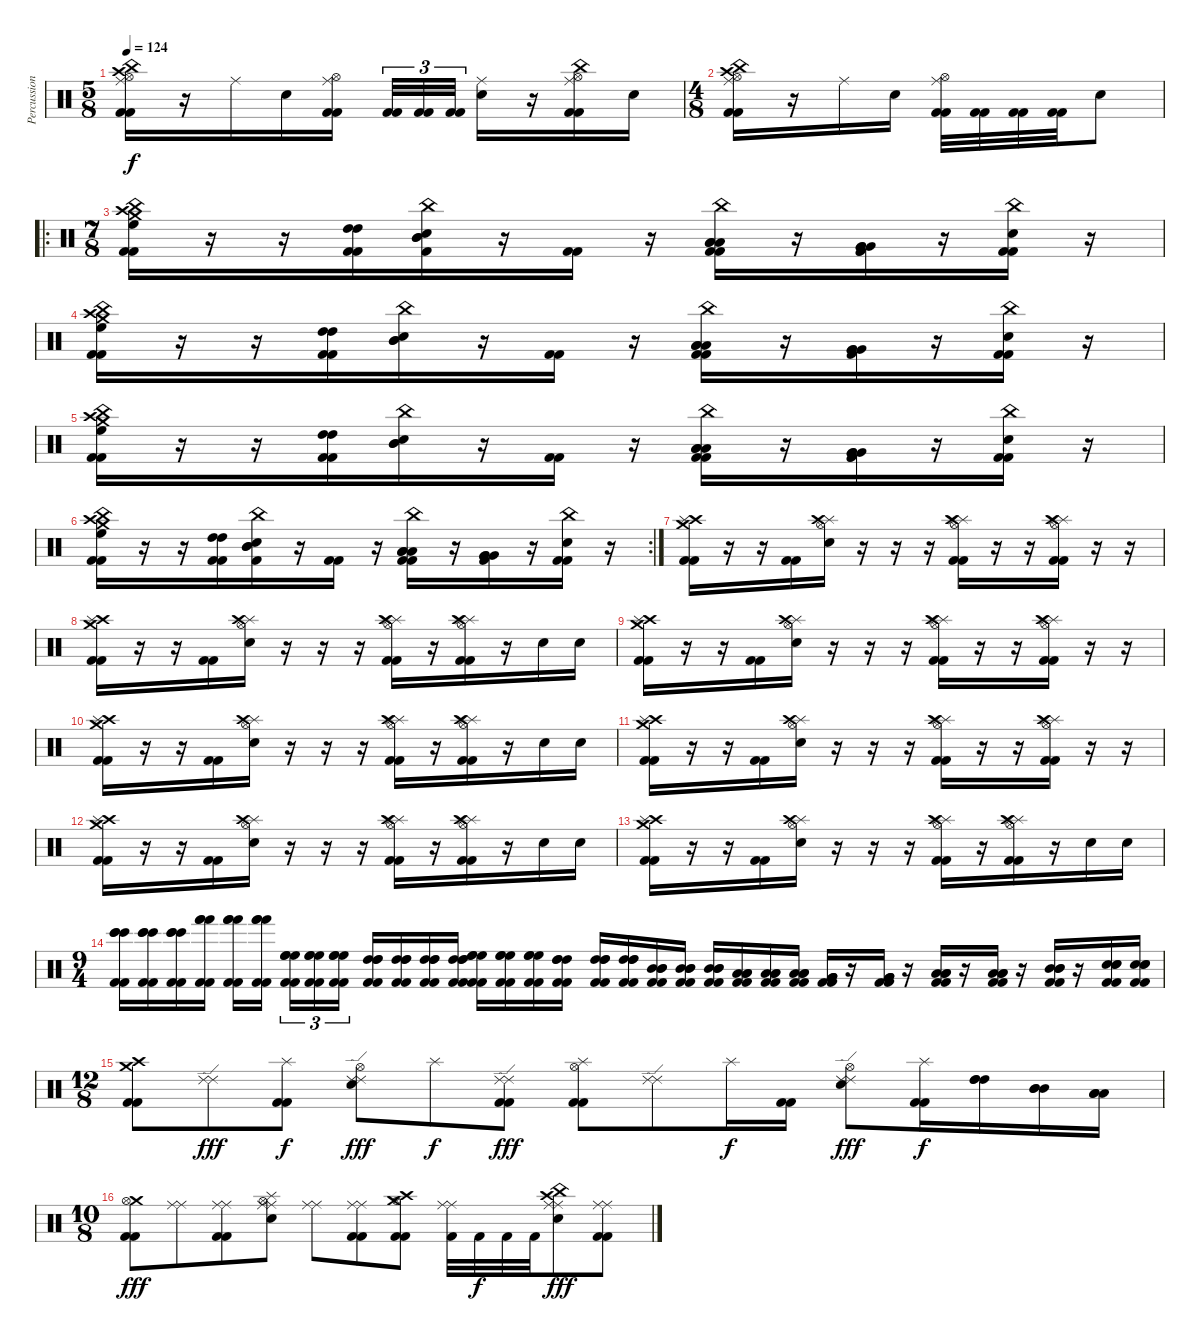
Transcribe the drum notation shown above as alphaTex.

\track ("Percussioni" "Percussion") {instrument percussion}
\staff {score}
\articulation defaults
\ts (5 8)
\tempo 124
\clef neutral
\ks c
("Crash high (hit)" "Ride (middle)" "Hi-Hat (open)" "China (hit)" "Kick (hit) 2" "Kick (hit) 2").16{dy f} r.16 "Ride (middle)".16 "Snare (hit) 2".16 ("Ride (middle)" "Hi-Hat (open)" "Kick (hit) 2" "Kick (hit) 2").16 ("Kick (hit) 2" "Kick (hit) 2").32{tu (3 2)} ("Kick (hit) 2" "Kick (hit) 2").32{tu (3 2)} ("Kick (hit) 2" "Kick (hit) 2").32{tu (3 2)} ("Ride (middle)" "Snare (hit) 2").16 r.16 ("Ride (middle)" "Hi-Hat (open)" "China (hit)" "Kick (hit) 2" "Kick (hit) 2").16 "Snare (hit) 2".16 |
\ts (4 8)
("Crash high (hit)" "Ride (middle)" "Hi-Hat (open)" "China (hit)" "Kick (hit) 2" "Kick (hit) 2").16 r.16 "Ride (middle)".16 "Snare (hit) 2".16 ("Ride (middle)" "Hi-Hat (open)" "Kick (hit) 2" "Kick (hit) 2").32 ("Kick (hit) 2" "Kick (hit) 2").32 ("Kick (hit) 2" "Kick (hit) 2").32 ("Kick (hit) 2" "Kick (hit) 2").32 "Snare (hit) 2".8 |
\ro
\ts (7 8)
("China (hit)" "Crash medium (hit)" "Crash high (hit)" "High Floor Tom (hit)" "Kick (hit) 2" "Kick (hit) 2").16 r.16 r.16 ("Kick (hit) 2" "High Tom (hit)" "High Tom (hit)" "Kick (hit) 2").16 ("China (hit)" "Snare (hit) 2" "Kick (hit) 2" "Mid Tom (hit)" "Mid Tom (hit)").16 r.16 ("Kick (hit) 2" "Kick (hit) 2").16 r.16 ("China (hit)" "Kick (hit) 2" "Low Tom (hit)" "Low Tom (hit)" "Low Tom (hit)" "Kick (hit) 2").16 r.16 ("Kick (hit) 2" "Very Low Tom (hit)" "Very Low Tom (hit)" "Very Low Tom (hit)" "Kick (hit) 2").16 r.16 ("China (hit)" "Snare (hit) 2" "Kick (hit) 2" "Kick (hit) 2").16 r.16 |
("China (hit)" "Crash medium (hit)" "Crash high (hit)" "High Floor Tom (hit)" "Kick (hit) 2" "Kick (hit) 2").16 r.16 r.16 ("Kick (hit) 2" "High Tom (hit)" "High Tom (hit)" "Kick (hit) 2").16 ("China (hit)" "Snare (hit) 2" "Mid Tom (hit)" "Mid Tom (hit)").16 r.16 ("Kick (hit) 2" "Kick (hit) 2").16 r.16 ("China (hit)" "Kick (hit) 2" "Low Tom (hit)" "Low Tom (hit)" "Low Tom (hit)" "Kick (hit) 2").16 r.16 ("Very Low Tom (hit)" "Very Low Tom (hit)" "Very Low Tom (hit)" "Kick (hit) 2").16 r.16 ("China (hit)" "Snare (hit) 2" "Kick (hit) 2" "Kick (hit) 2").16 r.16 |
("China (hit)" "Crash high (hit)" "Crash medium (hit)" "High Floor Tom (hit)" "Kick (hit) 2" "Kick (hit) 2").16 r.16 r.16 ("Kick (hit) 2" "High Tom (hit)" "High Tom (hit)" "Kick (hit) 2").16 ("China (hit)" "Snare (hit) 2" "Mid Tom (hit)" "Mid Tom (hit)").16 r.16 ("Kick (hit) 2" "Kick (hit) 2").16 r.16 ("China (hit)" "Kick (hit) 2" "Low Tom (hit)" "Low Tom (hit)" "Low Tom (hit)" "Kick (hit) 2").16 r.16 ("Kick (hit) 2" "Very Low Tom (hit)" "Very Low Tom (hit)" "Very Low Tom (hit)" "Kick (hit) 2").16 r.16 ("China (hit)" "Snare (hit) 2" "Kick (hit) 2" "Kick (hit) 2").16 r.16 |
\rc 2
("China (hit)" "Crash medium (hit)" "Crash high (hit)" "High Floor Tom (hit)" "Kick (hit) 2" "Kick (hit) 2").16 r.16 r.16 ("Kick (hit) 2" "High Tom (hit)" "High Tom (hit)" "Kick (hit) 2").16 ("China (hit)" "Snare (hit) 2" "Kick (hit) 2" "Mid Tom (hit)" "Mid Tom (hit)").16 r.16 ("Kick (hit) 2" "Kick (hit) 2").16 r.16 ("China (hit)" "Kick (hit) 2" "Low Tom (hit)" "Low Tom (hit)" "Low Tom (hit)" "Kick (hit) 2").16 r.16 ("Very Low Tom (hit)" "Very Low Tom (hit)" "Very Low Tom (hit)" "Kick (hit) 2").16 r.16 ("China (hit)" "Snare (hit) 2" "Kick (hit) 2" "Kick (hit) 2").16 r.16 |
("Crash high (hit)" "Crash medium (hit)" "Splash (hit)" "Kick (hit) 2" "Kick (hit) 2").16 r.16 r.16 ("Kick (hit) 2" "Kick (hit) 2").16 ("Hi-Hat (open)" "Snare (hit) 2" "Splash (hit)" "Crash high (hit)").16 r.16 r.16 r.16 ("Hi-Hat (open)" "Splash (hit)" "Splash (hit)" "Crash high (hit)" "Kick (hit) 2" "Kick (hit) 2").16 r.16 r.16 ("Hi-Hat (open)" "Splash (hit)" "Splash (hit)" "Crash high (hit)" "Kick (hit) 2" "Kick (hit) 2").16 r.16 r.16 |
("Crash high (hit)" "Crash medium (hit)" "Splash (hit)" "Kick (hit) 2" "Kick (hit) 2").16 r.16 r.16 ("Kick (hit) 2" "Kick (hit) 2").16 ("Hi-Hat (open)" "Snare (hit) 2" "Splash (hit)" "Crash high (hit)").16 r.16 r.16 r.16 ("Hi-Hat (open)" "Splash (hit)" "Splash (hit)" "Crash high (hit)" "Kick (hit) 2" "Kick (hit) 2").16 r.16 ("Hi-Hat (open)" "Splash (hit)" "Splash (hit)" "Crash high (hit)" "Kick (hit) 2" "Kick (hit) 2").16 r.16 "Snare (hit) 2".16 "Snare (hit) 2".16 |
("Crash high (hit)" "Crash medium (hit)" "Splash (hit)" "Kick (hit) 2" "Kick (hit) 2").16 r.16 r.16 ("Kick (hit) 2" "Kick (hit) 2").16 ("Hi-Hat (open)" "Snare (hit) 2" "Splash (hit)" "Crash high (hit)").16 r.16 r.16 r.16 ("Hi-Hat (open)" "Splash (hit)" "Splash (hit)" "Crash high (hit)" "Kick (hit) 2" "Kick (hit) 2").16 r.16 r.16 ("Hi-Hat (open)" "Splash (hit)" "Splash (hit)" "Crash high (hit)" "Kick (hit) 2" "Kick (hit) 2").16 r.16 r.16 |
("Crash high (hit)" "Crash medium (hit)" "Splash (hit)" "Kick (hit) 2" "Kick (hit) 2").16 r.16 r.16 ("Kick (hit) 2" "Kick (hit) 2").16 ("Hi-Hat (open)" "Snare (hit) 2" "Splash (hit)" "Crash high (hit)").16 r.16 r.16 r.16 ("Hi-Hat (open)" "Splash (hit)" "Splash (hit)" "Crash high (hit)" "Kick (hit) 2" "Kick (hit) 2").16 r.16 ("Hi-Hat (open)" "Splash (hit)" "Splash (hit)" "Crash high (hit)" "Kick (hit) 2" "Kick (hit) 2").16 r.16 "Snare (hit) 2".16 "Snare (hit) 2".16 |
("Crash high (hit)" "Crash medium (hit)" "Splash (hit)" "Kick (hit) 2" "Kick (hit) 2").16 r.16 r.16 ("Kick (hit) 2" "Kick (hit) 2").16 ("Hi-Hat (open)" "Snare (hit) 2" "Splash (hit)" "Crash high (hit)").16 r.16 r.16 r.16 ("Hi-Hat (open)" "Splash (hit)" "Splash (hit)" "Crash high (hit)" "Kick (hit) 2" "Kick (hit) 2").16 r.16 r.16 ("Hi-Hat (open)" "Splash (hit)" "Splash (hit)" "Crash high (hit)" "Kick (hit) 2" "Kick (hit) 2").16 r.16 r.16 |
("Crash high (hit)" "Crash medium (hit)" "Splash (hit)" "Kick (hit) 2" "Kick (hit) 2").16 r.16 r.16 ("Kick (hit) 2" "Kick (hit) 2").16 ("Hi-Hat (open)" "Snare (hit) 2" "Splash (hit)" "Crash high (hit)").16 r.16 r.16 r.16 ("Hi-Hat (open)" "Splash (hit)" "Splash (hit)" "Crash high (hit)" "Kick (hit) 2" "Kick (hit) 2").16 r.16 ("Hi-Hat (open)" "Splash (hit)" "Splash (hit)" "Crash high (hit)" "Kick (hit) 2" "Kick (hit) 2").16 r.16 "Snare (hit) 2".16 "Snare (hit) 2".16 |
("Crash high (hit)" "Crash medium (hit)" "Splash (hit)" "Kick (hit) 2" "Kick (hit) 2").16 r.16 r.16 ("Kick (hit) 2" "Kick (hit) 2").16 ("Hi-Hat (open)" "Snare (hit) 2" "Splash (hit)" "Crash high (hit)").16 r.16 r.16 r.16 ("Hi-Hat (open)" "Splash (hit)" "Splash (hit)" "Crash high (hit)" "Kick (hit) 2" "Kick (hit) 2").16 r.16 ("Hi-Hat (open)" "Splash (hit)" "Splash (hit)" "Crash high (hit)" "Kick (hit) 2" "Kick (hit) 2").16 r.16 "Snare (hit) 2".16 "Snare (hit) 2".16 |
\ts (9 4)
("Bongo High (hit)" "Bongo High (hit)" "Bongo High (hit)" "Kick (hit) 2" "Kick (hit) 2").16 ("Bongo High (hit)" "Bongo High (hit)" "Bongo High (hit)" "Kick (hit) 2" "Kick (hit) 2").16 ("Bongo High (hit)" "Bongo High (hit)" "Bongo High (hit)" "Kick (hit) 2" "Kick (hit) 2").16 ("Hand (hit)" "Hand (hit)" "Hand (hit)" "Kick (hit) 2" "Kick (hit) 2").16 ("Hand (hit)" "Hand (hit)" "Hand (hit)" "Kick (hit) 2" "Kick (hit) 2").16 ("Hand (hit)" "Hand (hit)" "Hand (hit)" "Kick (hit) 2" "Kick (hit) 2").16 ("High Floor Tom (hit)" "High Floor Tom (hit)" "High Floor Tom (hit)" "Kick (hit) 2" "Kick (hit) 2").16{tu (3 2)} ("High Floor Tom (hit)" "High Floor Tom (hit)" "High Floor Tom (hit)" "Kick (hit) 2" "Kick (hit) 2").16{tu (3 2)} ("High Floor Tom (hit)" "High Floor Tom (hit)" "High Floor Tom (hit)" "Kick (hit) 2" "Kick (hit) 2").16{tu (3 2)} ("High Tom (hit)" "High Tom (hit)" "High Tom (hit)" "Kick (hit) 2" "Kick (hit) 2").16 ("High Tom (hit)" "High Tom (hit)" "High Tom (hit)" "Kick (hit) 2" "Kick (hit) 2").16 ("High Tom (hit)" "High Tom (hit)" "High Tom (hit)" "Kick (hit) 2" "Kick (hit) 2").16 ("High Tom (hit)" "High Tom (hit)" "High Tom (hit)" "Kick (hit) 2" "Kick (hit) 2").16 ("High Floor Tom (hit)" "High Floor Tom (hit)" "High Floor Tom (hit)" "Kick (hit) 2" "Kick (hit) 2").16 ("High Floor Tom (hit)" "High Floor Tom (hit)" "High Floor Tom (hit)" "Kick (hit) 2" "Kick (hit) 2").16 ("High Floor Tom (hit)" "High Floor Tom (hit)" "High Floor Tom (hit)" "Kick (hit) 2" "Kick (hit) 2").16 ("High Tom (hit)" "High Tom (hit)" "High Tom (hit)" "Kick (hit) 2" "Kick (hit) 2").16 ("High Tom (hit)" "High Tom (hit)" "High Tom (hit)" "Kick (hit) 2" "Kick (hit) 2").16 ("High Tom (hit)" "High Tom (hit)" "High Tom (hit)" "Kick (hit) 2" "Kick (hit) 2").16 ("Mid Tom (hit)" "Mid Tom (hit)" "Mid Tom (hit)" "Kick (hit) 2" "Kick (hit) 2").16 ("Mid Tom (hit)" "Mid Tom (hit)" "Mid Tom (hit)" "Kick (hit) 2" "Kick (hit) 2").16 ("Mid Tom (hit)" "Mid Tom (hit)" "Mid Tom (hit)" "Kick (hit) 2" "Kick (hit) 2").16 ("Low Tom (hit)" "Low Tom (hit)" "Low Tom (hit)" "Kick (hit) 2" "Kick (hit) 2").16 ("Low Tom (hit)" "Low Tom (hit)" "Low Tom (hit)" "Kick (hit) 2" "Kick (hit) 2").16 ("Low Tom (hit)" "Low Tom (hit)" "Low Tom (hit)" "Kick (hit) 2" "Kick (hit) 2").16 ("Very Low Tom (hit)" "Very Low Tom (hit)" "Very Low Tom (hit)" "Kick (hit) 2" "Kick (hit) 2").16 r.16 ("Very Low Tom (hit)" "Very Low Tom (hit)" "Very Low Tom (hit)" "Kick (hit) 2" "Kick (hit) 2").16 r.16 ("Low Tom (hit)" "Low Tom (hit)" "Low Tom (hit)" "Kick (hit) 2" "Kick (hit) 2").16 r.16 ("Low Tom (hit)" "Low Tom (hit)" "Low Tom (hit)" "Kick (hit) 2" "Kick (hit) 2").16 r.16 ("Mid Tom (hit)" "Mid Tom (hit)" "Mid Tom (hit)" "Kick (hit) 2" "Kick (hit) 2").16 r.16 ("Snare (hit) 2" "Snare (hit) 2" "Snare (hit) 2" "Kick (hit) 2" "Kick (hit) 2").16 ("Snare (hit) 2" "Snare (hit) 2" "Snare (hit) 2" "Kick (hit) 2" "Kick (hit) 2").16 |
\ts (12 8)
("Crash medium (hit)" "Crash high (hit)" "Kick (hit) 2" "Kick (hit) 2").8 ("Ride (edge) 2" "Ride (edge) 2").8{dy fff} ("Splash (hit)" "Kick (hit) 2" "Kick (hit) 2").8{dy f} ("Ride (edge) 2" "Snare (hit) 2" "Hi-Hat (open)" "Ride (edge) 2").8{dy fff} "Splash (hit)".8{dy f} ("Ride (edge) 2" "Ride (edge) 2" "Kick (hit) 2" "Kick (hit) 2").8{dy fff} ("Splash (hit)" "Hi-Hat (open)" "Kick (hit) 2" "Kick (hit) 2").8 ("Ride (edge) 2" "Ride (edge) 2").8 "Splash (hit)".16{dy f} ("Kick (hit) 2" "Kick (hit) 2").16 ("Ride (edge) 2" "Ride (edge) 2" "Hi-Hat (open)" "Snare (hit) 2").8{dy fff} ("Splash (hit)" "Kick (hit) 2" "Kick (hit) 2").16{dy f} ("High Tom (hit)" "High Tom (hit)" "High Tom (hit)").16 ("Mid Tom (hit)" "Mid Tom (hit)" "Mid Tom (hit)").16 ("Low Tom (hit)" "Low Tom (hit)" "Low Tom (hit)").16 |
\ts (10 8)
("Crash medium (hit)" "Hi-Hat (open)" "Kick (hit) 2" "Kick (hit) 2").8{dy fff} ("Ride (middle)" "Ride (middle)").8 ("Ride (middle)" "Ride (middle)" "Kick (hit) 2" "Kick (hit) 2").8 ("Ride (middle)" "Splash (hit)" "Snare (hit) 2" "Hi-Hat (open)" "Ride (middle)").8 ("Ride (middle)" "Ride (middle)").8 ("Ride (middle)" "Ride (middle)" "Kick (hit) 2" "Kick (hit) 2").8 ("Crash high (hit)" "Crash medium (hit)" "Hi-Hat (open)" "Kick (hit) 2" "Kick (hit) 2").8 ("Ride (middle)" "Ride (middle)" "Kick (hit) 2").32 "Kick (hit) 2".32{dy f} "Kick (hit) 2".32 "Kick (hit) 2".32 ("Ride (middle)" "Snare (hit) 2" "China (hit)" "Crash high (hit)" "Ride (middle)").8{dy fff} ("Ride (middle)" "Ride (middle)" "Kick (hit) 2" "Kick (hit) 2").8
